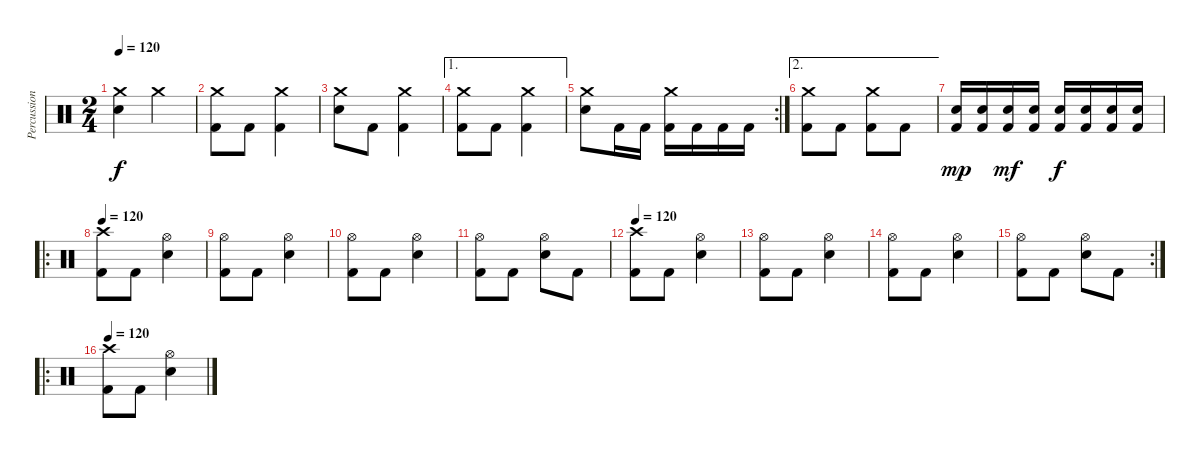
\track ("Percussion" "Percussion") {instrument percussion}
\staff {score}
\articulation defaults
\ts (2 4)
\tempo 120
\clef neutral
\ks c
("Crash medium (hit)" "Snare (hit) 2").4{dy f} "Crash medium (hit)".4 |
("Crash medium (hit)" "Kick (hit) 2").8 "Kick (hit) 2".8 ("Crash medium (hit)" "Kick (hit) 2").4 |
("Crash medium (hit)" "Snare (hit) 2").8 "Kick (hit) 2".8 ("Crash medium (hit)" "Kick (hit) 2").4 |
\ae 1
("Crash medium (hit)" "Kick (hit) 2").8 "Kick (hit) 2".8 ("Crash medium (hit)" "Kick (hit) 2").4 |
\rc 2
("Crash medium (hit)" "Snare (hit) 2").8 "Kick (hit) 2".16 "Kick (hit) 2".16 ("Crash medium (hit)" "Kick (hit) 2").16 "Kick (hit) 2".16 "Kick (hit) 2".16 "Kick (hit) 2".16 |
\ae 2
("Crash medium (hit)" "Kick (hit) 2").8 "Kick (hit) 2".8 ("Crash medium (hit)" "Kick (hit) 2").8 "Kick (hit) 2".8 |
("Snare (hit) 2" "Kick (hit) 2").16{dy mp} ("Snare (hit) 2" "Kick (hit) 2").16 ("Snare (hit) 2" "Kick (hit) 2").16{dy mf} ("Snare (hit) 2" "Kick (hit) 2").16 ("Snare (hit) 2" "Kick (hit) 2").16{dy f} ("Snare (hit) 2" "Kick (hit) 2").16 ("Snare (hit) 2" "Kick (hit) 2").16 ("Snare (hit) 2" "Kick (hit) 2").16 |
\ro
\tempo 120
("Crash high (hit)" "Kick (hit) 2").8 "Kick (hit) 2".8 ("Hi-Hat (open)" "Snare (hit) 2").4 |
("Hi-Hat (open)" "Kick (hit) 2").8 "Kick (hit) 2".8 ("Hi-Hat (open)" "Snare (hit) 2").4 |
("Hi-Hat (open)" "Kick (hit) 2").8 "Kick (hit) 2".8 ("Hi-Hat (open)" "Snare (hit) 2").4 |
("Hi-Hat (open)" "Kick (hit) 2").8 "Kick (hit) 2".8 ("Hi-Hat (open)" "Snare (hit) 2").8 "Kick (hit) 2".8 |
\tempo 120
("Crash high (hit)" "Kick (hit) 2").8 "Kick (hit) 2".8 ("Hi-Hat (open)" "Snare (hit) 2").4 |
("Hi-Hat (open)" "Kick (hit) 2").8 "Kick (hit) 2".8 ("Hi-Hat (open)" "Snare (hit) 2").4 |
("Hi-Hat (open)" "Kick (hit) 2").8 "Kick (hit) 2".8 ("Hi-Hat (open)" "Snare (hit) 2").4 |
\rc 2
("Hi-Hat (open)" "Kick (hit) 2").8 "Kick (hit) 2".8 ("Hi-Hat (open)" "Snare (hit) 2").8 "Kick (hit) 2".8 |
\ro
\tempo 120
("Crash high (hit)" "Kick (hit) 2").8 "Kick (hit) 2".8 ("Hi-Hat (open)" "Snare (hit) 2").4
